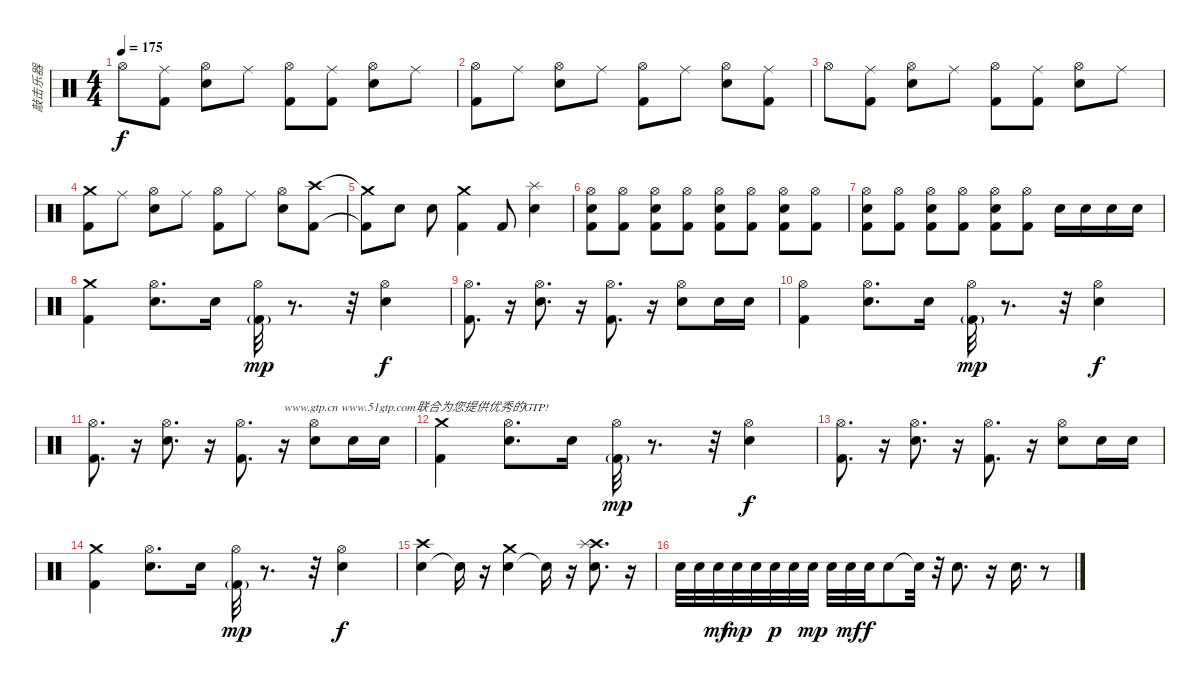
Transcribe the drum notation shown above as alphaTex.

\track ("敲击乐器" "敲击乐器") {instrument percussion}
\staff {score}
\articulation defaults
\ts (4 4)
\tempo 175
\clef neutral
\ks c "Hi-Hat (open)".8{dy f}
("Kick (hit) 2" "Ride (middle)").8 ("Electric Snare (hit)" "Hi-Hat (open)").8 "Ride (middle)".8 ("Kick (hit) 2" "Hi-Hat (open)").8 ("Kick (hit) 2" "Ride (middle)").8 ("Electric Snare (hit)" "Hi-Hat (open)").8 "Ride (middle)".8 |
("Kick (hit) 2" "Hi-Hat (open)").8 "Ride (middle)".8 ("Electric Snare (hit)" "Hi-Hat (open)").8 "Ride (middle)".8 ("Kick (hit) 2" "Hi-Hat (open)").8 "Ride (middle)".8 ("Electric Snare (hit)" "Hi-Hat (open)").8 ("Kick (hit) 2" "Ride (middle)").8 |
"Hi-Hat (open)".8 ("Kick (hit) 2" "Ride (middle)").8 ("Electric Snare (hit)" "Hi-Hat (open)").8 "Ride (middle)".8 ("Kick (hit) 2" "Hi-Hat (open)").8 ("Kick (hit) 2" "Ride (middle)").8 ("Electric Snare (hit)" "Hi-Hat (open)").8 "Ride (middle)".8 |
("Kick (hit) 2" "Crash medium (hit)").8 "Ride (middle)".8 ("Electric Snare (hit)" "Hi-Hat (open)").8 "Ride (middle)".8 ("Kick (hit) 2" "Hi-Hat (open)").8 "Ride (middle)".8 ("Electric Snare (hit)" "Hi-Hat (open)").8 ("Kick (hit) 2" "Crash high (hit)").8 |
("Kick (hit) 2"{t} "Crash medium (hit)"{t}).8 "Electric Snare (hit)".8 "Electric Snare (hit)".8 ("Kick (hit) 2" "Crash medium (hit)").4 "Kick (hit) 2".8 ("Electric Snare (hit)" "Splash (hit)").4 |
("Kick (hit) 2" "Electric Snare (hit)" "Hi-Hat (open)").8 ("Kick (hit) 2" "Hi-Hat (open)").8 ("Kick (hit) 2" "Electric Snare (hit)" "Hi-Hat (open)").8 ("Kick (hit) 2" "Hi-Hat (open)").8 ("Kick (hit) 2" "Electric Snare (hit)" "Hi-Hat (open)").8 ("Kick (hit) 2" "Hi-Hat (open)").8 ("Kick (hit) 2" "Electric Snare (hit)" "Hi-Hat (open)").8 ("Kick (hit) 2" "Hi-Hat (open)").8 |
("Kick (hit) 2" "Electric Snare (hit)" "Hi-Hat (open)").8 ("Kick (hit) 2" "Hi-Hat (open)").8 ("Kick (hit) 2" "Electric Snare (hit)" "Hi-Hat (open)").8 ("Kick (hit) 2" "Hi-Hat (open)").8 ("Kick (hit) 2" "Electric Snare (hit)" "Hi-Hat (open)").8 ("Kick (hit) 2" "Hi-Hat (open)").8 "Electric Snare (hit)".16 "Electric Snare (hit)".16 "Electric Snare (hit)".16 "Electric Snare (hit)".16 |
("Crash medium (hit)" "Kick (hit) 2").4 ("Hi-Hat (open)" "Electric Snare (hit)").8{d} "Electric Snare (hit)".16 ("Hi-Hat (open)" "Kick (hit) 2"{g}).32{dy mp} r.8{d} r.32 ("Hi-Hat (open)" "Electric Snare (hit)").4{dy f} |
("Hi-Hat (open)" "Kick (hit) 2").8{d} r.16 ("Hi-Hat (open)" "Electric Snare (hit)").8{d} r.16 ("Hi-Hat (open)" "Kick (hit) 2").8{d} r.16 ("Hi-Hat (open)" "Electric Snare (hit)").8 "Electric Snare (hit)".16 "Electric Snare (hit)".16 |
("Hi-Hat (open)" "Kick (hit) 2").4 ("Hi-Hat (open)" "Electric Snare (hit)").8{d} "Electric Snare (hit)".16 ("Hi-Hat (open)" "Kick (hit) 2"{g}).32{dy mp} r.8{d} r.32 ("Hi-Hat (open)" "Electric Snare (hit)").4{dy f} |
("Hi-Hat (open)" "Kick (hit) 2").8{d} r.16 ("Hi-Hat (open)" "Electric Snare (hit)").8{d} r.16 ("Hi-Hat (open)" "Kick (hit) 2").8{d} r.16{txt "www.gtp.cn www.51gtp.com联合为您提供优秀的GTP!"} ("Hi-Hat (open)" "Electric Snare (hit)").8 "Electric Snare (hit)".16 "Electric Snare (hit)".16 |
("Crash medium (hit)" "Kick (hit) 2").4 ("Hi-Hat (open)" "Electric Snare (hit)").8{d} "Electric Snare (hit)".16 ("Hi-Hat (open)" "Kick (hit) 2"{g}).32{dy mp} r.8{d} r.32 ("Hi-Hat (open)" "Electric Snare (hit)").4{dy f} |
("Hi-Hat (open)" "Kick (hit) 2").8{d} r.16 ("Hi-Hat (open)" "Electric Snare (hit)").8{d} r.16 ("Hi-Hat (open)" "Kick (hit) 2").8{d} r.16 ("Hi-Hat (open)" "Electric Snare (hit)").8 "Electric Snare (hit)".16 "Electric Snare (hit)".16 |
("Crash medium (hit)" "Kick (hit) 2").4 ("Hi-Hat (open)" "Electric Snare (hit)").8{d} "Electric Snare (hit)".16 ("Hi-Hat (open)" "Kick (hit) 2"{g}).32{dy mp} r.8{d} r.32 ("Hi-Hat (open)" "Electric Snare (hit)").4{dy f} |
("Electric Snare (hit)" "Crash high (hit)").4 "Snare (hit)"{t}.16 r.16 ("Electric Snare (hit)" "Crash medium (hit)").4 "Snare (hit)"{t}.16 r.16 ("Electric Snare (hit)" "Crash high (hit)" "Splash (hit)").8{d} r.16 |
"Electric Snare (hit)".32 "Electric Snare (hit)".32 "Electric Snare (hit)".32{dy mf} "Electric Snare (hit)".32{dy mp} "Electric Snare (hit)".32 "Electric Snare (hit)".32{dy p} "Electric Snare (hit)".32 "Electric Snare (hit)".32{dy mp} "Electric Snare (hit)".32 "Electric Snare (hit)".32{dy mf} "Electric Snare (hit)".32{dy f} "Electric Snare (hit)".8 "Snare (hit)"{t}.32 r.32 "Electric Snare (hit)".8{d} r.16 "Electric Snare (hit)".16{d} r.8
